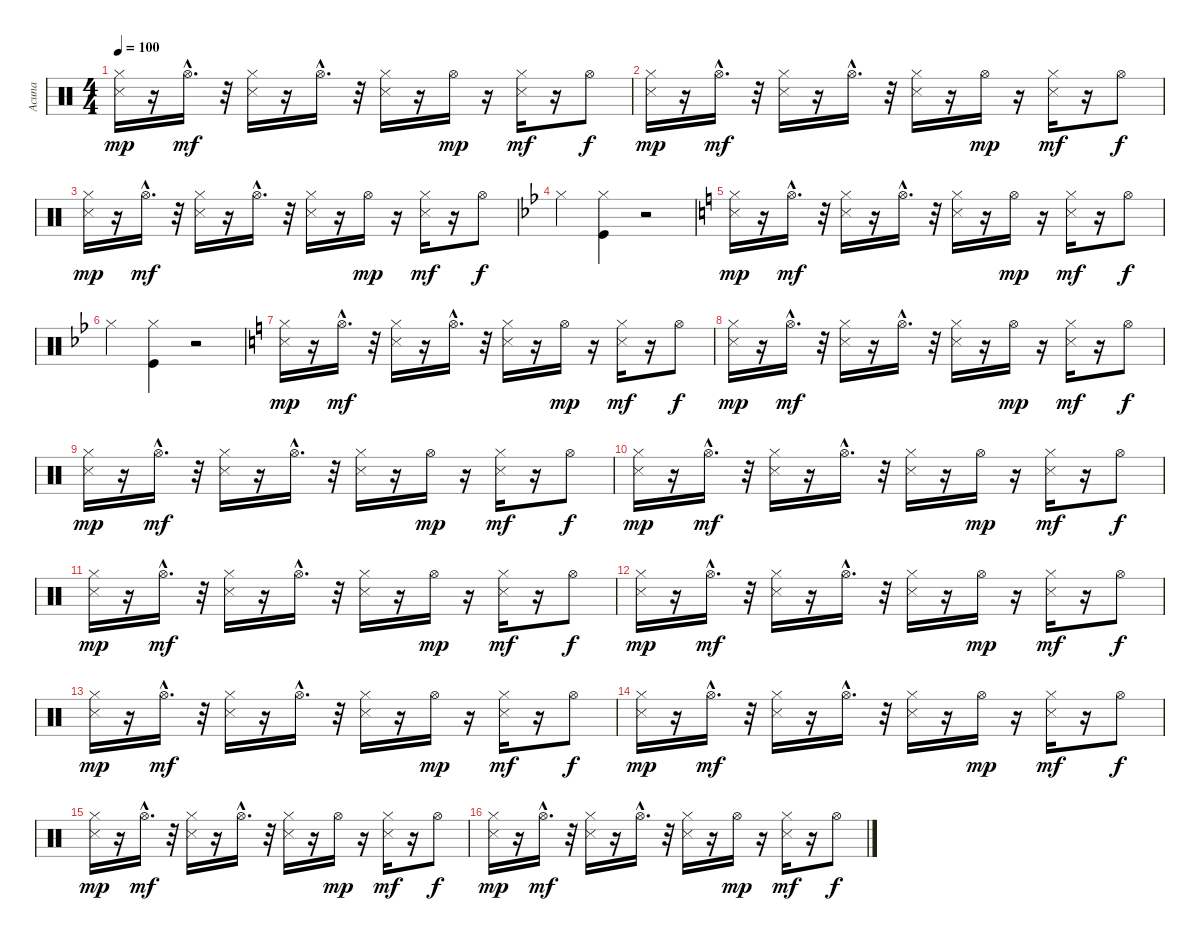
\track ("Acuna" "Acuna") {instrument percussion}
\staff {score}
\articulation defaults
\ts (4 4)
\tempo 100
\clef neutral
\ks c
("Snare (side stick) 3" "Hi-Hat (closed)").16{dy mp} r.16 "Hi-Hat (open)"{hac}.16{d dy mf} r.32 ("Snare (side stick) 3" "Hi-Hat (closed)").16 r.16 "Hi-Hat (open)"{hac}.16{d} r.32 ("Snare (side stick) 3" "Hi-Hat (closed)").16 r.16 "Hi-Hat (open)".16{dy mp} r.16 ("Snare (side stick) 3" "Hi-Hat (closed)").16{dy mf} r.16 "Hi-Hat (open)".8{dy f} |
("Snare (side stick) 3" "Hi-Hat (closed)").16{dy mp} r.16 "Hi-Hat (open)"{hac}.16{d dy mf} r.32 ("Snare (side stick) 3" "Hi-Hat (closed)").16 r.16 "Hi-Hat (open)"{hac}.16{d} r.32 ("Snare (side stick) 3" "Hi-Hat (closed)").16 r.16 "Hi-Hat (open)".16{dy mp} r.16 ("Snare (side stick) 3" "Hi-Hat (closed)").16{dy mf} r.16 "Hi-Hat (open)".8{dy f} |
("Snare (side stick) 3" "Hi-Hat (closed)").16{dy mp} r.16 "Hi-Hat (open)"{hac}.16{d dy mf} r.32 ("Snare (side stick) 3" "Hi-Hat (closed)").16 r.16 "Hi-Hat (open)"{hac}.16{d} r.32 ("Snare (side stick) 3" "Hi-Hat (closed)").16 r.16 "Hi-Hat (open)".16{dy mp} r.16 ("Snare (side stick) 3" "Hi-Hat (closed)").16{dy mf} r.16 "Hi-Hat (open)".8{dy f} |
\ks bb "Hi-Hat (closed)".4
("Kick (hit)" "Hi-Hat (closed)").4 r.2 |
\ks c
("Snare (side stick) 3" "Hi-Hat (closed)").16{dy mp} r.16 "Hi-Hat (open)"{hac}.16{d dy mf} r.32 ("Snare (side stick) 3" "Hi-Hat (closed)").16 r.16 "Hi-Hat (open)"{hac}.16{d} r.32 ("Snare (side stick) 3" "Hi-Hat (closed)").16 r.16 "Hi-Hat (open)".16{dy mp} r.16 ("Snare (side stick) 3" "Hi-Hat (closed)").16{dy mf} r.16 "Hi-Hat (open)".8{dy f} |
\ks bb "Hi-Hat (closed)".4
("Kick (hit)" "Hi-Hat (closed)").4 r.2 |
\ks c
("Snare (side stick) 3" "Hi-Hat (closed)").16{dy mp} r.16 "Hi-Hat (open)"{hac}.16{d dy mf} r.32 ("Snare (side stick) 3" "Hi-Hat (closed)").16 r.16 "Hi-Hat (open)"{hac}.16{d} r.32 ("Snare (side stick) 3" "Hi-Hat (closed)").16 r.16 "Hi-Hat (open)".16{dy mp} r.16 ("Snare (side stick) 3" "Hi-Hat (closed)").16{dy mf} r.16 "Hi-Hat (open)".8{dy f} |
("Snare (side stick) 3" "Hi-Hat (closed)").16{dy mp} r.16 "Hi-Hat (open)"{hac}.16{d dy mf} r.32 ("Snare (side stick) 3" "Hi-Hat (closed)").16 r.16 "Hi-Hat (open)"{hac}.16{d} r.32 ("Snare (side stick) 3" "Hi-Hat (closed)").16 r.16 "Hi-Hat (open)".16{dy mp} r.16 ("Snare (side stick) 3" "Hi-Hat (closed)").16{dy mf} r.16 "Hi-Hat (open)".8{dy f} |
("Snare (side stick) 3" "Hi-Hat (closed)").16{dy mp} r.16 "Hi-Hat (open)"{hac}.16{d dy mf} r.32 ("Snare (side stick) 3" "Hi-Hat (closed)").16 r.16 "Hi-Hat (open)"{hac}.16{d} r.32 ("Snare (side stick) 3" "Hi-Hat (closed)").16 r.16 "Hi-Hat (open)".16{dy mp} r.16 ("Snare (side stick) 3" "Hi-Hat (closed)").16{dy mf} r.16 "Hi-Hat (open)".8{dy f} |
("Snare (side stick) 3" "Hi-Hat (closed)").16{dy mp} r.16 "Hi-Hat (open)"{hac}.16{d dy mf} r.32 ("Snare (side stick) 3" "Hi-Hat (closed)").16 r.16 "Hi-Hat (open)"{hac}.16{d} r.32 ("Snare (side stick) 3" "Hi-Hat (closed)").16 r.16 "Hi-Hat (open)".16{dy mp} r.16 ("Snare (side stick) 3" "Hi-Hat (closed)").16{dy mf} r.16 "Hi-Hat (open)".8{dy f} |
("Snare (side stick) 3" "Hi-Hat (closed)").16{dy mp} r.16 "Hi-Hat (open)"{hac}.16{d dy mf} r.32 ("Snare (side stick) 3" "Hi-Hat (closed)").16 r.16 "Hi-Hat (open)"{hac}.16{d} r.32 ("Snare (side stick) 3" "Hi-Hat (closed)").16 r.16 "Hi-Hat (open)".16{dy mp} r.16 ("Snare (side stick) 3" "Hi-Hat (closed)").16{dy mf} r.16 "Hi-Hat (open)".8{dy f} |
("Snare (side stick) 3" "Hi-Hat (closed)").16{dy mp} r.16 "Hi-Hat (open)"{hac}.16{d dy mf} r.32 ("Snare (side stick) 3" "Hi-Hat (closed)").16 r.16 "Hi-Hat (open)"{hac}.16{d} r.32 ("Snare (side stick) 3" "Hi-Hat (closed)").16 r.16 "Hi-Hat (open)".16{dy mp} r.16 ("Snare (side stick) 3" "Hi-Hat (closed)").16{dy mf} r.16 "Hi-Hat (open)".8{dy f} |
("Snare (side stick) 3" "Hi-Hat (closed)").16{dy mp} r.16 "Hi-Hat (open)"{hac}.16{d dy mf} r.32 ("Snare (side stick) 3" "Hi-Hat (closed)").16 r.16 "Hi-Hat (open)"{hac}.16{d} r.32 ("Snare (side stick) 3" "Hi-Hat (closed)").16 r.16 "Hi-Hat (open)".16{dy mp} r.16 ("Snare (side stick) 3" "Hi-Hat (closed)").16{dy mf} r.16 "Hi-Hat (open)".8{dy f} |
("Snare (side stick) 3" "Hi-Hat (closed)").16{dy mp} r.16 "Hi-Hat (open)"{hac}.16{d dy mf} r.32 ("Snare (side stick) 3" "Hi-Hat (closed)").16 r.16 "Hi-Hat (open)"{hac}.16{d} r.32 ("Snare (side stick) 3" "Hi-Hat (closed)").16 r.16 "Hi-Hat (open)".16{dy mp} r.16 ("Snare (side stick) 3" "Hi-Hat (closed)").16{dy mf} r.16 "Hi-Hat (open)".8{dy f} |
("Snare (side stick) 3" "Hi-Hat (closed)").16{dy mp} r.16 "Hi-Hat (open)"{hac}.16{d dy mf} r.32 ("Snare (side stick) 3" "Hi-Hat (closed)").16 r.16 "Hi-Hat (open)"{hac}.16{d} r.32 ("Snare (side stick) 3" "Hi-Hat (closed)").16 r.16 "Hi-Hat (open)".16{dy mp} r.16 ("Snare (side stick) 3" "Hi-Hat (closed)").16{dy mf} r.16 "Hi-Hat (open)".8{dy f} |
("Snare (side stick) 3" "Hi-Hat (closed)").16{dy mp} r.16 "Hi-Hat (open)"{hac}.16{d dy mf} r.32 ("Snare (side stick) 3" "Hi-Hat (closed)").16 r.16 "Hi-Hat (open)"{hac}.16{d} r.32 ("Snare (side stick) 3" "Hi-Hat (closed)").16 r.16 "Hi-Hat (open)".16{dy mp} r.16 ("Snare (side stick) 3" "Hi-Hat (closed)").16{dy mf} r.16 "Hi-Hat (open)".8{dy f}
